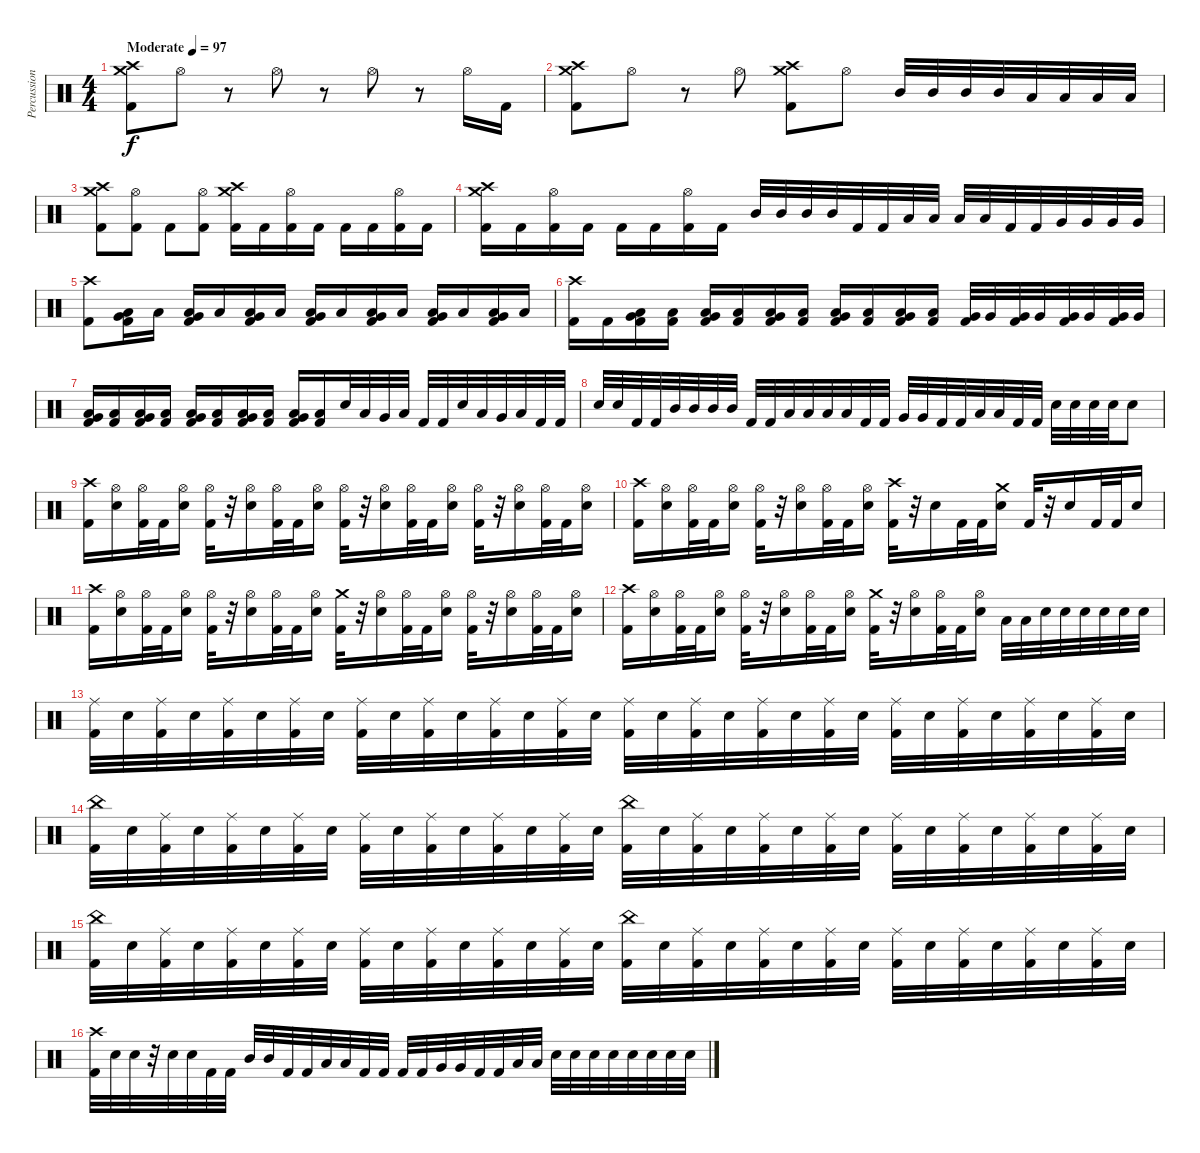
\track ("Percussion" "Percussion") {instrument percussion}
\staff {score}
\articulation defaults
\ts (4 4)
\tempo (97 "Moderate")
\clef neutral
\ks c
("Crash high (hit)" "Crash medium (hit)" "Kick (hit) 2").8{dy f} "Hi-Hat (open)".8 r.8 "Hi-Hat (open)".8 r.8 "Hi-Hat (open)".8 r.8 "Hi-Hat (open)".16 "Kick (hit) 2".16 |
("Crash high (hit)" "Crash medium (hit)" "Kick (hit) 2").8 "Hi-Hat (open)".8 r.8 "Hi-Hat (open)".8 ("Crash high (hit)" "Crash medium (hit)" "Kick (hit) 2").8 "Hi-Hat (open)".8 "Mid Tom (hit)".32 "Mid Tom (hit)".32 "Mid Tom (hit)".32 "Mid Tom (hit)".32 "Low Tom (hit)".32 "Low Tom (hit)".32 "Low Tom (hit)".32 "Low Tom (hit)".32 |
("Crash high (hit)" "Crash medium (hit)" "Kick (hit) 2").8 ("Hi-Hat (open)" "Kick (hit) 2").8 "Kick (hit) 2".8 ("Hi-Hat (open)" "Kick (hit) 2").8 ("Crash high (hit)" "Crash medium (hit)" "Kick (hit) 2").16 "Kick (hit) 2".16 ("Hi-Hat (open)" "Kick (hit) 2").16 "Kick (hit) 2".16 "Kick (hit) 2".16 "Kick (hit) 2".16 ("Hi-Hat (open)" "Kick (hit) 2").16 "Kick (hit) 2".16 |
("Crash high (hit)" "Crash medium (hit)" "Kick (hit) 2").16 "Kick (hit) 2".16 ("Hi-Hat (open)" "Kick (hit) 2").16 "Kick (hit) 2".16 "Kick (hit) 2".16 "Kick (hit) 2".16 ("Hi-Hat (open)" "Kick (hit) 2").16 "Kick (hit) 2".16 "Mid Tom (hit)".32 "Mid Tom (hit)".32 "Mid Tom (hit)".32 "Mid Tom (hit)".32 "Kick (hit) 2".32 "Kick (hit) 2".32 "Low Tom (hit)".32 "Low Tom (hit)".32 "Low Tom (hit)".32 "Low Tom (hit)".32 "Kick (hit) 2".32 "Kick (hit) 2".32 "Very Low Tom (hit)".32 "Very Low Tom (hit)".32 "Very Low Tom (hit)".32 "Very Low Tom (hit)".32 |
("Crash high (hit)" "Kick (hit) 2").8 ("Very Low Tom (hit)" "Low Floor Tom (hit)" "Kick (hit) 2").16 "Low Floor Tom (hit)".16 ("Very Low Tom (hit)" "Low Floor Tom (hit)" "Kick (hit) 2").16 "Low Floor Tom (hit)".16 ("Very Low Tom (hit)" "Low Floor Tom (hit)" "Kick (hit) 2").16 "Low Floor Tom (hit)".16 ("Very Low Tom (hit)" "Low Floor Tom (hit)" "Kick (hit) 2").16 "Low Floor Tom (hit)".16 ("Very Low Tom (hit)" "Low Floor Tom (hit)" "Kick (hit) 2").16 "Low Floor Tom (hit)".16 ("Very Low Tom (hit)" "Low Floor Tom (hit)" "Kick (hit) 2").16 "Low Floor Tom (hit)".16 ("Very Low Tom (hit)" "Low Floor Tom (hit)" "Kick (hit) 2").16 "Low Floor Tom (hit)".16 |
("Crash high (hit)" "Kick (hit) 2").16 "Kick (hit) 2".16 ("Very Low Tom (hit)" "Low Floor Tom (hit)" "Kick (hit) 2").16 ("Low Floor Tom (hit)" "Kick (hit) 2").16 ("Very Low Tom (hit)" "Low Floor Tom (hit)" "Kick (hit) 2").16 ("Low Floor Tom (hit)" "Kick (hit) 2").16 ("Very Low Tom (hit)" "Low Floor Tom (hit)" "Kick (hit) 2").16 ("Low Floor Tom (hit)" "Kick (hit) 2").16 ("Very Low Tom (hit)" "Low Floor Tom (hit)" "Kick (hit) 2").16 ("Low Floor Tom (hit)" "Kick (hit) 2").16 ("Very Low Tom (hit)" "Low Floor Tom (hit)" "Kick (hit) 2").16 ("Low Floor Tom (hit)" "Kick (hit) 2").16 ("Very Low Tom (hit)" "Kick (hit) 2").32 "Very Low Tom (hit)".32 ("Very Low Tom (hit)" "Kick (hit) 2").32 "Very Low Tom (hit)".32 ("Very Low Tom (hit)" "Kick (hit) 2").32 "Very Low Tom (hit)".32 ("Very Low Tom (hit)" "Kick (hit) 2").32 "Very Low Tom (hit)".32 |
("Very Low Tom (hit)" "Low Floor Tom (hit)" "Kick (hit) 2").16 ("Low Floor Tom (hit)" "Kick (hit) 2").16 ("Very Low Tom (hit)" "Low Floor Tom (hit)" "Kick (hit) 2").16 ("Low Floor Tom (hit)" "Kick (hit) 2").16 ("Very Low Tom (hit)" "Low Floor Tom (hit)" "Kick (hit) 2").16 ("Low Floor Tom (hit)" "Kick (hit) 2").16 ("Very Low Tom (hit)" "Low Floor Tom (hit)" "Kick (hit) 2").16 ("Low Floor Tom (hit)" "Kick (hit) 2").16 ("Very Low Tom (hit)" "Low Floor Tom (hit)" "Kick (hit) 2").16 ("Low Floor Tom (hit)" "Kick (hit) 2").16 "Snare (hit) 2".32 "Low Floor Tom (hit)".32 "Very Low Tom (hit)".32 "Low Floor Tom (hit)".32 "Kick (hit) 2".32 "Kick (hit) 2".32 "Snare (hit) 2".32 "Low Floor Tom (hit)".32 "Very Low Tom (hit)".32 "Low Floor Tom (hit)".32 "Kick (hit) 2".32 "Kick (hit) 2".32 |
"Snare (hit) 2".32 "Snare (hit) 2".32 "Kick (hit) 2".32 "Kick (hit) 2".32 "Mid Tom (hit)".32 "Mid Tom (hit)".32 "Mid Tom (hit)".32 "Mid Tom (hit)".32 "Kick (hit) 2".32 "Kick (hit) 2".32 "Low Tom (hit)".32 "Low Tom (hit)".32 "Low Tom (hit)".32 "Low Tom (hit)".32 "Kick (hit) 2".32 "Kick (hit) 2".32 "Very Low Tom (hit)".32 "Very Low Tom (hit)".32 "Kick (hit) 2".32 "Kick (hit) 2".32 "Low Floor Tom (hit)".32 "Low Floor Tom (hit)".32 "Kick (hit) 2".32 "Kick (hit) 2".32 "Snare (hit) 2".32 "Snare (hit) 2".32 "Snare (hit) 2".32 "Snare (hit) 2".32 "Snare (hit) 2".8 |
("Crash high (hit)" "Kick (hit) 2").16 ("Hi-Hat (open)" "Snare (hit) 2").16 ("Hi-Hat (open)" "Kick (hit) 2").32 "Kick (hit) 2".32 ("Hi-Hat (open)" "Snare (hit) 2").16 ("Hi-Hat (open)" "Kick (hit) 2").32 r.32 ("Hi-Hat (open)" "Snare (hit) 2").16 ("Hi-Hat (open)" "Kick (hit) 2").32 "Kick (hit) 2".32 ("Hi-Hat (open)" "Snare (hit) 2").16 ("Hi-Hat (open)" "Kick (hit) 2").32 r.32 ("Hi-Hat (open)" "Snare (hit) 2").16 ("Hi-Hat (open)" "Kick (hit) 2").32 "Kick (hit) 2".32 ("Hi-Hat (open)" "Snare (hit) 2").16 ("Hi-Hat (open)" "Kick (hit) 2").32 r.32 ("Hi-Hat (open)" "Snare (hit) 2").16 ("Hi-Hat (open)" "Kick (hit) 2").32 "Kick (hit) 2".32 ("Hi-Hat (open)" "Snare (hit) 2").16 |
("Crash high (hit)" "Kick (hit) 2").16 ("Hi-Hat (open)" "Snare (hit) 2").16 ("Hi-Hat (open)" "Kick (hit) 2").32 "Kick (hit) 2".32 ("Hi-Hat (open)" "Snare (hit) 2").16 ("Hi-Hat (open)" "Kick (hit) 2").32 r.32 ("Hi-Hat (open)" "Snare (hit) 2").16 ("Hi-Hat (open)" "Kick (hit) 2").32 "Kick (hit) 2".32 ("Hi-Hat (open)" "Snare (hit) 2").16 ("Crash high (hit)" "Kick (hit) 2").32 r.32 "Snare (hit) 2".16 "Kick (hit) 2".32 "Kick (hit) 2".32 ("Crash medium (hit)" "Snare (hit) 2").16 "Kick (hit) 2".32 r.32 "Snare (hit) 2".16 "Kick (hit) 2".32 "Kick (hit) 2".32 "Snare (hit) 2".16 |
("Crash high (hit)" "Kick (hit) 2").16 ("Hi-Hat (open)" "Snare (hit) 2").16 ("Hi-Hat (open)" "Kick (hit) 2").32 "Kick (hit) 2".32 ("Hi-Hat (open)" "Snare (hit) 2").16 ("Hi-Hat (open)" "Kick (hit) 2").32 r.32 ("Hi-Hat (open)" "Snare (hit) 2").16 ("Hi-Hat (open)" "Kick (hit) 2").32 "Kick (hit) 2".32 ("Hi-Hat (open)" "Snare (hit) 2").16 ("Crash medium (hit)" "Kick (hit) 2").32 r.32 ("Hi-Hat (open)" "Snare (hit) 2").16 ("Hi-Hat (open)" "Kick (hit) 2").32 "Kick (hit) 2".32 ("Hi-Hat (open)" "Snare (hit) 2").16 ("Hi-Hat (open)" "Kick (hit) 2").32 r.32 ("Hi-Hat (open)" "Snare (hit) 2").16 ("Hi-Hat (open)" "Kick (hit) 2").32 "Kick (hit) 2".32 ("Hi-Hat (open)" "Snare (hit) 2").16 |
("Crash high (hit)" "Kick (hit) 2").16 ("Hi-Hat (open)" "Snare (hit) 2").16 ("Hi-Hat (open)" "Kick (hit) 2").32 "Kick (hit) 2".32 ("Hi-Hat (open)" "Snare (hit) 2").16 ("Hi-Hat (open)" "Kick (hit) 2").32 r.32 ("Hi-Hat (open)" "Snare (hit) 2").16 ("Hi-Hat (open)" "Kick (hit) 2").32 "Kick (hit) 2".32 ("Hi-Hat (open)" "Snare (hit) 2").16 ("Crash medium (hit)" "Kick (hit) 2").32 r.32 ("Hi-Hat (open)" "Snare (hit) 2").16 ("Hi-Hat (open)" "Kick (hit) 2").32 "Kick (hit) 2".32 ("Hi-Hat (open)" "Snare (hit) 2").16 "Low Tom (hit)".32 "Low Tom (hit)".32 "Snare (hit) 2".32 "Snare (hit) 2".32 "Snare (hit) 2".32 "Snare (hit) 2".32 "Snare (hit) 2".32 "Snare (hit) 2".32 |
("Ride (middle)" "Kick (hit) 2").32 "Snare (hit) 2".32 ("Ride (middle)" "Kick (hit) 2").32 "Snare (hit) 2".32 ("Ride (middle)" "Kick (hit) 2").32 "Snare (hit) 2".32 ("Ride (middle)" "Kick (hit) 2").32 "Snare (hit) 2".32 ("Ride (middle)" "Kick (hit) 2").32 "Snare (hit) 2".32 ("Ride (middle)" "Kick (hit) 2").32 "Snare (hit) 2".32 ("Ride (middle)" "Kick (hit) 2").32 "Snare (hit) 2".32 ("Ride (middle)" "Kick (hit) 2").32 "Snare (hit) 2".32 ("Ride (middle)" "Kick (hit) 2").32 "Snare (hit) 2".32 ("Ride (middle)" "Kick (hit) 2").32 "Snare (hit) 2".32 ("Ride (middle)" "Kick (hit) 2").32 "Snare (hit) 2".32 ("Ride (middle)" "Kick (hit) 2").32 "Snare (hit) 2".32 ("Ride (middle)" "Kick (hit) 2").32 "Snare (hit) 2".32 ("Ride (middle)" "Kick (hit) 2").32 "Snare (hit) 2".32 ("Ride (middle)" "Kick (hit) 2").32 "Snare (hit) 2".32 ("Ride (middle)" "Kick (hit) 2").32 "Snare (hit) 2".32 |
("China (hit)" "Kick (hit) 2").32 "Snare (hit) 2".32 ("Ride (middle)" "Kick (hit) 2").32 "Snare (hit) 2".32 ("Ride (middle)" "Kick (hit) 2").32 "Snare (hit) 2".32 ("Ride (middle)" "Kick (hit) 2").32 "Snare (hit) 2".32 ("Ride (middle)" "Kick (hit) 2").32 "Snare (hit) 2".32 ("Ride (middle)" "Kick (hit) 2").32 "Snare (hit) 2".32 ("Ride (middle)" "Kick (hit) 2").32 "Snare (hit) 2".32 ("Ride (middle)" "Kick (hit) 2").32 "Snare (hit) 2".32 ("China (hit)" "Kick (hit) 2").32 "Snare (hit) 2".32 ("Ride (middle)" "Kick (hit) 2").32 "Snare (hit) 2".32 ("Ride (middle)" "Kick (hit) 2").32 "Snare (hit) 2".32 ("Ride (middle)" "Kick (hit) 2").32 "Snare (hit) 2".32 ("Ride (middle)" "Kick (hit) 2").32 "Snare (hit) 2".32 ("Ride (middle)" "Kick (hit) 2").32 "Snare (hit) 2".32 ("Ride (middle)" "Kick (hit) 2").32 "Snare (hit) 2".32 ("Ride (middle)" "Kick (hit) 2").32 "Snare (hit) 2".32 |
("China (hit)" "Kick (hit) 2").32 "Snare (hit) 2".32 ("Ride (middle)" "Kick (hit) 2").32 "Snare (hit) 2".32 ("Ride (middle)" "Kick (hit) 2").32 "Snare (hit) 2".32 ("Ride (middle)" "Kick (hit) 2").32 "Snare (hit) 2".32 ("Ride (middle)" "Kick (hit) 2").32 "Snare (hit) 2".32 ("Ride (middle)" "Kick (hit) 2").32 "Snare (hit) 2".32 ("Ride (middle)" "Kick (hit) 2").32 "Snare (hit) 2".32 ("Ride (middle)" "Kick (hit) 2").32 "Snare (hit) 2".32 ("China (hit)" "Kick (hit) 2").32 "Snare (hit) 2".32 ("Ride (middle)" "Kick (hit) 2").32 "Snare (hit) 2".32 ("Ride (middle)" "Kick (hit) 2").32 "Snare (hit) 2".32 ("Ride (middle)" "Kick (hit) 2").32 "Snare (hit) 2".32 ("Ride (middle)" "Kick (hit) 2").32 "Snare (hit) 2".32 ("Ride (middle)" "Kick (hit) 2").32 "Snare (hit) 2".32 ("Ride (middle)" "Kick (hit) 2").32 "Snare (hit) 2".32 ("Ride (middle)" "Kick (hit) 2").32 "Snare (hit) 2".32 |
("Crash high (hit)" "Kick (hit) 2").32 "Snare (hit) 2".32 "Snare (hit) 2".32 r.32 "Snare (hit) 2".32 "Snare (hit) 2".32 "Kick (hit) 2".32 "Kick (hit) 2".32 "Mid Tom (hit)".32 "Mid Tom (hit)".32 "Kick (hit) 2".32 "Kick (hit) 2".32 "Low Tom (hit)".32 "Low Tom (hit)".32 "Kick (hit) 2".32 "Kick (hit) 2".32 "Kick (hit) 2".32 "Kick (hit) 2".32 "Very Low Tom (hit)".32 "Very Low Tom (hit)".32 "Kick (hit) 2".32 "Kick (hit) 2".32 "Low Tom (hit)".32 "Low Tom (hit)".32 "Snare (hit) 2".32 "Snare (hit) 2".32 "Snare (hit) 2".32 "Snare (hit) 2".32 "Snare (hit) 2".32 "Snare (hit) 2".32 "Snare (hit) 2".32 "Snare (hit) 2".32
